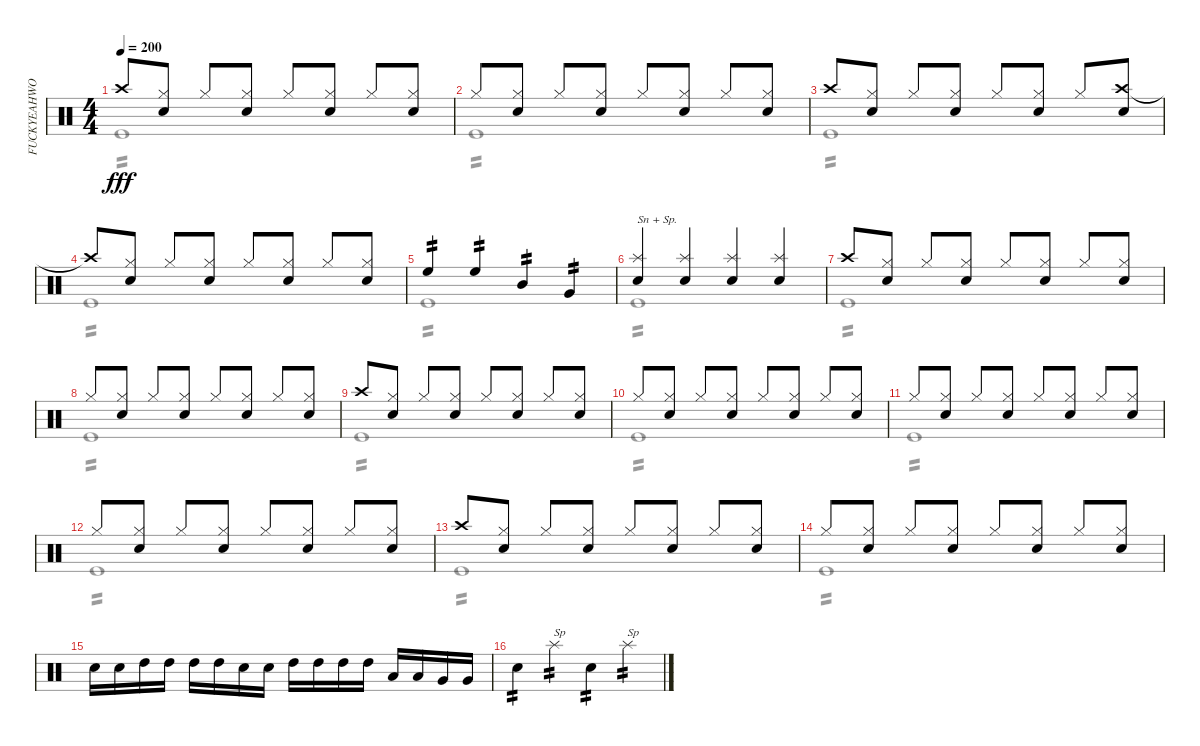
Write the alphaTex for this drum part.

\track ("FUCKYEAHWOOTDAVEMACKINTOSH!(Percussion)" "FUCKYEAHWO") {instrument percussion}
\staff {score}
\articulation defaults
\voice
\ts (4 4)
\tempo 200
\clef neutral
\ks c "Crash high (hit)".8{dy fff}
("Hi-Hat (closed)" "Snare (hit) 2").8 "Hi-Hat (closed)".8 ("Hi-Hat (closed)" "Snare (hit) 2").8 "Hi-Hat (closed)".8 ("Hi-Hat (closed)" "Snare (hit) 2").8 "Hi-Hat (closed)".8 ("Hi-Hat (closed)" "Snare (hit) 2").8 |
"Hi-Hat (closed)".8 ("Hi-Hat (closed)" "Snare (hit) 2").8 "Hi-Hat (closed)".8 ("Hi-Hat (closed)" "Snare (hit) 2").8 "Hi-Hat (closed)".8 ("Hi-Hat (closed)" "Snare (hit) 2").8 "Hi-Hat (closed)".8 ("Hi-Hat (closed)" "Snare (hit) 2").8 |
"Crash high (hit)".8 ("Hi-Hat (closed)" "Snare (hit) 2").8 "Hi-Hat (closed)".8 ("Hi-Hat (closed)" "Snare (hit) 2").8 "Hi-Hat (closed)".8 ("Hi-Hat (closed)" "Snare (hit) 2").8 "Hi-Hat (closed)".8 ("Crash high (hit)" "Snare (hit) 2").8 |
"Crash high (hit)"{t}.8 ("Hi-Hat (closed)" "Snare (hit) 2").8 "Hi-Hat (closed)".8 ("Hi-Hat (closed)" "Snare (hit) 2").8 "Hi-Hat (closed)".8 ("Hi-Hat (closed)" "Snare (hit) 2").8 "Hi-Hat (closed)".8 ("Hi-Hat (closed)" "Snare (hit) 2").8 |
"High Floor Tom (hit)".4{tp 2} "High Floor Tom (hit)".4{tp 2} "Mid Tom (hit)".4{tp 2} "Very Low Tom (hit)".4{tp 2} |
("Snare (hit) 2" "Splash (hit)").4{txt "Sn + Sp."} ("Snare (hit) 2" "Splash (hit)").4 ("Snare (hit) 2" "Splash (hit)").4 ("Snare (hit) 2" "Splash (hit)").4 |
"Crash high (hit)".8 ("Hi-Hat (closed)" "Snare (hit) 2").8 "Hi-Hat (closed)".8 ("Hi-Hat (closed)" "Snare (hit) 2").8 "Hi-Hat (closed)".8 ("Hi-Hat (closed)" "Snare (hit) 2").8 "Hi-Hat (closed)".8 ("Hi-Hat (closed)" "Snare (hit) 2").8 |
"Hi-Hat (closed)".8 ("Hi-Hat (closed)" "Snare (hit) 2").8 "Hi-Hat (closed)".8 ("Hi-Hat (closed)" "Snare (hit) 2").8 "Hi-Hat (closed)".8 ("Hi-Hat (closed)" "Snare (hit) 2").8 "Hi-Hat (closed)".8 ("Hi-Hat (closed)" "Snare (hit) 2").8 |
"Crash high (hit)".8 ("Hi-Hat (closed)" "Snare (hit) 2").8 "Hi-Hat (closed)".8 ("Hi-Hat (closed)" "Snare (hit) 2").8 "Hi-Hat (closed)".8 ("Hi-Hat (closed)" "Snare (hit) 2").8 "Hi-Hat (closed)".8 ("Hi-Hat (closed)" "Snare (hit) 2").8 |
"Hi-Hat (closed)".8 ("Hi-Hat (closed)" "Snare (hit) 2").8 "Hi-Hat (closed)".8 ("Hi-Hat (closed)" "Snare (hit) 2").8 "Hi-Hat (closed)".8 ("Hi-Hat (closed)" "Snare (hit) 2").8 "Hi-Hat (closed)".8 ("Hi-Hat (closed)" "Snare (hit) 2").8 |
"Hi-Hat (closed)".8 ("Hi-Hat (closed)" "Snare (hit) 2").8 "Hi-Hat (closed)".8 ("Hi-Hat (closed)" "Snare (hit) 2").8 "Hi-Hat (closed)".8 ("Hi-Hat (closed)" "Snare (hit) 2").8 "Hi-Hat (closed)".8 ("Hi-Hat (closed)" "Snare (hit) 2").8 |
"Hi-Hat (closed)".8 ("Hi-Hat (closed)" "Snare (hit) 2").8 "Hi-Hat (closed)".8 ("Hi-Hat (closed)" "Snare (hit) 2").8 "Hi-Hat (closed)".8 ("Hi-Hat (closed)" "Snare (hit) 2").8 "Hi-Hat (closed)".8 ("Hi-Hat (closed)" "Snare (hit) 2").8 |
"Crash high (hit)".8 ("Hi-Hat (closed)" "Snare (hit) 2").8 "Hi-Hat (closed)".8 ("Hi-Hat (closed)" "Snare (hit) 2").8 "Hi-Hat (closed)".8 ("Hi-Hat (closed)" "Snare (hit) 2").8 "Hi-Hat (closed)".8 ("Hi-Hat (closed)" "Snare (hit) 2").8 |
"Hi-Hat (closed)".8 ("Hi-Hat (closed)" "Snare (hit) 2").8 "Hi-Hat (closed)".8 ("Hi-Hat (closed)" "Snare (hit) 2").8 "Hi-Hat (closed)".8 ("Hi-Hat (closed)" "Snare (hit) 2").8 "Hi-Hat (closed)".8 ("Hi-Hat (closed)" "Snare (hit) 2").8 |
"Snare (hit) 2".16 "Snare (hit) 2".16 "High Tom (hit)".16 "High Tom (hit)".16 "High Tom (hit)".16 "High Tom (hit)".16 "Snare (hit) 2".16 "Snare (hit) 2".16 "High Tom (hit)".16 "High Tom (hit)".16 "High Tom (hit)".16 "High Tom (hit)".16 "Low Tom (hit)".16 "Low Tom (hit)".16 "Very Low Tom (hit)".16 "Very Low Tom (hit)".16 |
"Snare (hit) 2".4{tp 2} "Splash (hit)".4{txt "Sp" tp 2} "Snare (hit) 2".4{tp 2} "Splash (hit)".4{txt "Sp" tp 2}
\voice
\clef neutral
\ottava regular
\simile none
\ks c "Kick (hit)".1{tp 2 dy fff}
|
"Kick (hit)".1{tp 2} |
"Kick (hit)".1{tp 2} |
"Kick (hit)".1{tp 2} |
"Kick (hit)".1{tp 2} |
"Kick (hit)".1{tp 2} |
"Kick (hit)".1{tp 2} |
"Kick (hit)".1{tp 2} |
"Kick (hit)".1{tp 2} |
"Kick (hit)".1{tp 2} |
"Kick (hit)".1{tp 2} |
"Kick (hit)".1{tp 2} |
"Kick (hit)".1{tp 2} |
"Kick (hit)".1{tp 2} |
|
